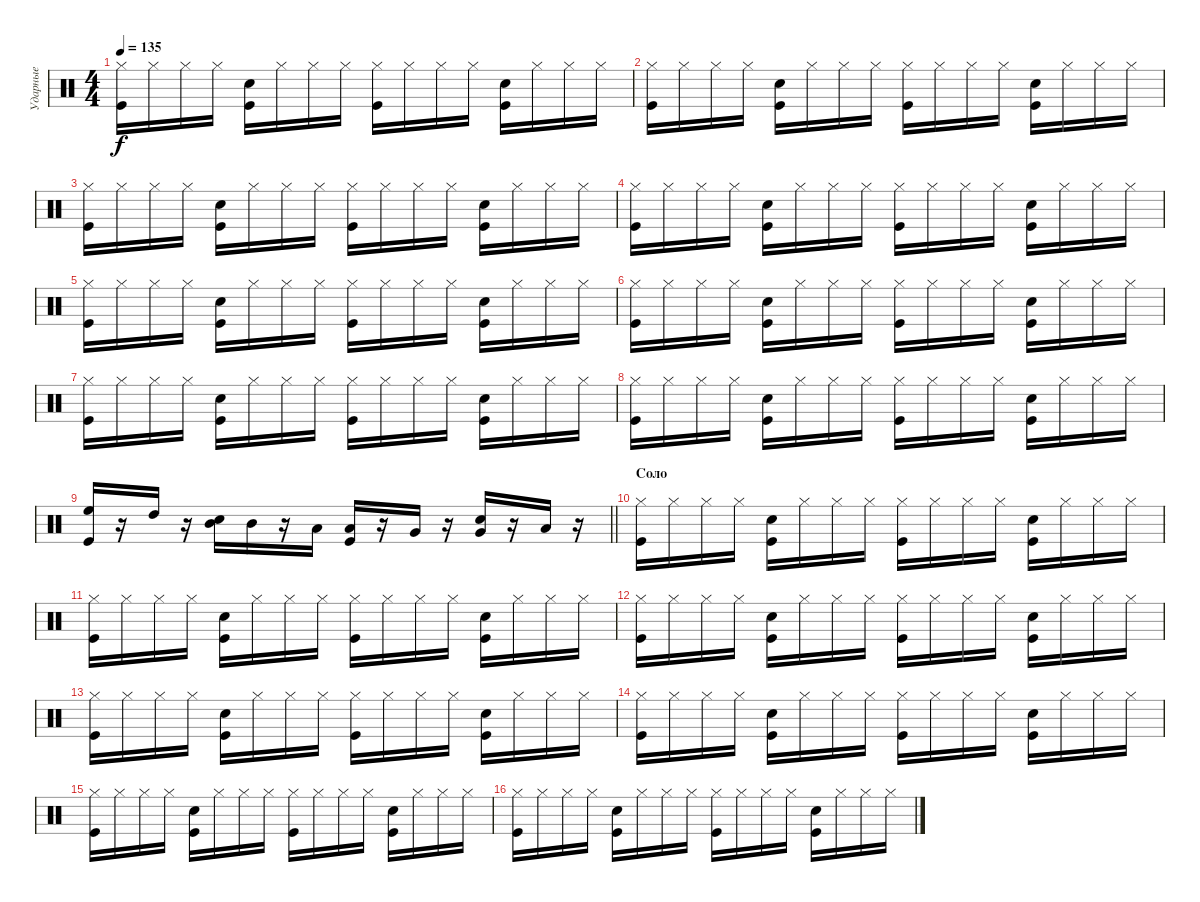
\track ("Ударные" "Ударные") {instrument percussion}
\staff {score}
\articulation defaults
\ts (4 4)
\tempo 135
\clef neutral
\ks c
("Hi-Hat (closed)" "Kick (hit)").16{dy f} "Hi-Hat (closed)".16 "Hi-Hat (closed)".16 "Hi-Hat (closed)".16 ("Kick (hit)" "Snare (hit) 2").16 "Hi-Hat (closed)".16 "Hi-Hat (closed)".16 "Hi-Hat (closed)".16 ("Hi-Hat (closed)" "Kick (hit)").16 "Hi-Hat (closed)".16 "Hi-Hat (closed)".16 "Hi-Hat (closed)".16 ("Kick (hit)" "Snare (hit) 2").16 "Hi-Hat (closed)".16 "Hi-Hat (closed)".16 "Hi-Hat (closed)".16 |
("Hi-Hat (closed)" "Kick (hit)").16 "Hi-Hat (closed)".16 "Hi-Hat (closed)".16 "Hi-Hat (closed)".16 ("Kick (hit)" "Snare (hit) 2").16 "Hi-Hat (closed)".16 "Hi-Hat (closed)".16 "Hi-Hat (closed)".16 ("Hi-Hat (closed)" "Kick (hit)").16 "Hi-Hat (closed)".16 "Hi-Hat (closed)".16 "Hi-Hat (closed)".16 ("Kick (hit)" "Snare (hit) 2").16 "Hi-Hat (closed)".16 "Hi-Hat (closed)".16 "Hi-Hat (closed)".16 |
("Hi-Hat (closed)" "Kick (hit)").16 "Hi-Hat (closed)".16 "Hi-Hat (closed)".16 "Hi-Hat (closed)".16 ("Kick (hit)" "Snare (hit) 2").16 "Hi-Hat (closed)".16 "Hi-Hat (closed)".16 "Hi-Hat (closed)".16 ("Hi-Hat (closed)" "Kick (hit)").16 "Hi-Hat (closed)".16 "Hi-Hat (closed)".16 "Hi-Hat (closed)".16 ("Kick (hit)" "Snare (hit) 2").16 "Hi-Hat (closed)".16 "Hi-Hat (closed)".16 "Hi-Hat (closed)".16 |
("Hi-Hat (closed)" "Kick (hit)").16 "Hi-Hat (closed)".16 "Hi-Hat (closed)".16 "Hi-Hat (closed)".16 ("Kick (hit)" "Snare (hit) 2").16 "Hi-Hat (closed)".16 "Hi-Hat (closed)".16 "Hi-Hat (closed)".16 ("Hi-Hat (closed)" "Kick (hit)").16 "Hi-Hat (closed)".16 "Hi-Hat (closed)".16 "Hi-Hat (closed)".16 ("Kick (hit)" "Snare (hit) 2").16 "Hi-Hat (closed)".16 "Hi-Hat (closed)".16 "Hi-Hat (closed)".16 |
("Hi-Hat (closed)" "Kick (hit)").16 "Hi-Hat (closed)".16 "Hi-Hat (closed)".16 "Hi-Hat (closed)".16 ("Kick (hit)" "Snare (hit) 2").16 "Hi-Hat (closed)".16 "Hi-Hat (closed)".16 "Hi-Hat (closed)".16 ("Hi-Hat (closed)" "Kick (hit)").16 "Hi-Hat (closed)".16 "Hi-Hat (closed)".16 "Hi-Hat (closed)".16 ("Kick (hit)" "Snare (hit) 2").16 "Hi-Hat (closed)".16 "Hi-Hat (closed)".16 "Hi-Hat (closed)".16 |
("Hi-Hat (closed)" "Kick (hit)").16 "Hi-Hat (closed)".16 "Hi-Hat (closed)".16 "Hi-Hat (closed)".16 ("Kick (hit)" "Snare (hit) 2").16 "Hi-Hat (closed)".16 "Hi-Hat (closed)".16 "Hi-Hat (closed)".16 ("Hi-Hat (closed)" "Kick (hit)").16 "Hi-Hat (closed)".16 "Hi-Hat (closed)".16 "Hi-Hat (closed)".16 ("Kick (hit)" "Snare (hit) 2").16 "Hi-Hat (closed)".16 "Hi-Hat (closed)".16 "Hi-Hat (closed)".16 |
("Hi-Hat (closed)" "Kick (hit)").16 "Hi-Hat (closed)".16 "Hi-Hat (closed)".16 "Hi-Hat (closed)".16 ("Kick (hit)" "Snare (hit) 2").16 "Hi-Hat (closed)".16 "Hi-Hat (closed)".16 "Hi-Hat (closed)".16 ("Hi-Hat (closed)" "Kick (hit)").16 "Hi-Hat (closed)".16 "Hi-Hat (closed)".16 "Hi-Hat (closed)".16 ("Kick (hit)" "Snare (hit) 2").16 "Hi-Hat (closed)".16 "Hi-Hat (closed)".16 "Hi-Hat (closed)".16 |
("Hi-Hat (closed)" "Kick (hit)").16 "Hi-Hat (closed)".16 "Hi-Hat (closed)".16 "Hi-Hat (closed)".16 ("Kick (hit)" "Snare (hit) 2").16 "Hi-Hat (closed)".16 "Hi-Hat (closed)".16 "Hi-Hat (closed)".16 ("Hi-Hat (closed)" "Kick (hit)").16 "Hi-Hat (closed)".16 "Hi-Hat (closed)".16 "Hi-Hat (closed)".16 ("Kick (hit)" "Snare (hit) 2").16 "Hi-Hat (closed)".16 "Hi-Hat (closed)".16 "Hi-Hat (closed)".16 |
\barLineRight lightlight
("Kick (hit)" "High Floor Tom (hit)").16 r.16 "High Tom (hit)".16 r.16 ("Snare (hit) 2" "Mid Tom (hit)").16 "Mid Tom (hit)".16 r.16 "Low Tom (hit)".16 ("Kick (hit)" "Low Tom (hit)").16 r.16 "Very Low Tom (hit)".16 r.16 ("Very Low Tom (hit)" "Snare (hit) 2").16 r.16 "Low Floor Tom (hit)".16 r.16 |
\section ("" "Соло")
("Hi-Hat (closed)" "Kick (hit)").16 "Hi-Hat (closed)".16 "Hi-Hat (closed)".16 "Hi-Hat (closed)".16 ("Kick (hit)" "Snare (hit) 2").16 "Hi-Hat (closed)".16 "Hi-Hat (closed)".16 "Hi-Hat (closed)".16 ("Hi-Hat (closed)" "Kick (hit)").16 "Hi-Hat (closed)".16 "Hi-Hat (closed)".16 "Hi-Hat (closed)".16 ("Kick (hit)" "Snare (hit) 2").16 "Hi-Hat (closed)".16 "Hi-Hat (closed)".16 "Hi-Hat (closed)".16 |
("Hi-Hat (closed)" "Kick (hit)").16 "Hi-Hat (closed)".16 "Hi-Hat (closed)".16 "Hi-Hat (closed)".16 ("Kick (hit)" "Snare (hit) 2").16 "Hi-Hat (closed)".16 "Hi-Hat (closed)".16 "Hi-Hat (closed)".16 ("Hi-Hat (closed)" "Kick (hit)").16 "Hi-Hat (closed)".16 "Hi-Hat (closed)".16 "Hi-Hat (closed)".16 ("Kick (hit)" "Snare (hit) 2").16 "Hi-Hat (closed)".16 "Hi-Hat (closed)".16 "Hi-Hat (closed)".16 |
("Hi-Hat (closed)" "Kick (hit)").16 "Hi-Hat (closed)".16 "Hi-Hat (closed)".16 "Hi-Hat (closed)".16 ("Kick (hit)" "Snare (hit) 2").16 "Hi-Hat (closed)".16 "Hi-Hat (closed)".16 "Hi-Hat (closed)".16 ("Hi-Hat (closed)" "Kick (hit)").16 "Hi-Hat (closed)".16 "Hi-Hat (closed)".16 "Hi-Hat (closed)".16 ("Kick (hit)" "Snare (hit) 2").16 "Hi-Hat (closed)".16 "Hi-Hat (closed)".16 "Hi-Hat (closed)".16 |
("Hi-Hat (closed)" "Kick (hit)").16 "Hi-Hat (closed)".16 "Hi-Hat (closed)".16 "Hi-Hat (closed)".16 ("Kick (hit)" "Snare (hit) 2").16 "Hi-Hat (closed)".16 "Hi-Hat (closed)".16 "Hi-Hat (closed)".16 ("Hi-Hat (closed)" "Kick (hit)").16 "Hi-Hat (closed)".16 "Hi-Hat (closed)".16 "Hi-Hat (closed)".16 ("Kick (hit)" "Snare (hit) 2").16 "Hi-Hat (closed)".16 "Hi-Hat (closed)".16 "Hi-Hat (closed)".16 |
("Hi-Hat (closed)" "Kick (hit)").16 "Hi-Hat (closed)".16 "Hi-Hat (closed)".16 "Hi-Hat (closed)".16 ("Kick (hit)" "Snare (hit) 2").16 "Hi-Hat (closed)".16 "Hi-Hat (closed)".16 "Hi-Hat (closed)".16 ("Hi-Hat (closed)" "Kick (hit)").16 "Hi-Hat (closed)".16 "Hi-Hat (closed)".16 "Hi-Hat (closed)".16 ("Kick (hit)" "Snare (hit) 2").16 "Hi-Hat (closed)".16 "Hi-Hat (closed)".16 "Hi-Hat (closed)".16 |
("Hi-Hat (closed)" "Kick (hit)").16 "Hi-Hat (closed)".16 "Hi-Hat (closed)".16 "Hi-Hat (closed)".16 ("Kick (hit)" "Snare (hit) 2").16 "Hi-Hat (closed)".16 "Hi-Hat (closed)".16 "Hi-Hat (closed)".16 ("Hi-Hat (closed)" "Kick (hit)").16 "Hi-Hat (closed)".16 "Hi-Hat (closed)".16 "Hi-Hat (closed)".16 ("Kick (hit)" "Snare (hit) 2").16 "Hi-Hat (closed)".16 "Hi-Hat (closed)".16 "Hi-Hat (closed)".16 |
("Hi-Hat (closed)" "Kick (hit)").16 "Hi-Hat (closed)".16 "Hi-Hat (closed)".16 "Hi-Hat (closed)".16 ("Kick (hit)" "Snare (hit) 2").16 "Hi-Hat (closed)".16 "Hi-Hat (closed)".16 "Hi-Hat (closed)".16 ("Hi-Hat (closed)" "Kick (hit)").16 "Hi-Hat (closed)".16 "Hi-Hat (closed)".16 "Hi-Hat (closed)".16 ("Kick (hit)" "Snare (hit) 2").16 "Hi-Hat (closed)".16 "Hi-Hat (closed)".16 "Hi-Hat (closed)".16
